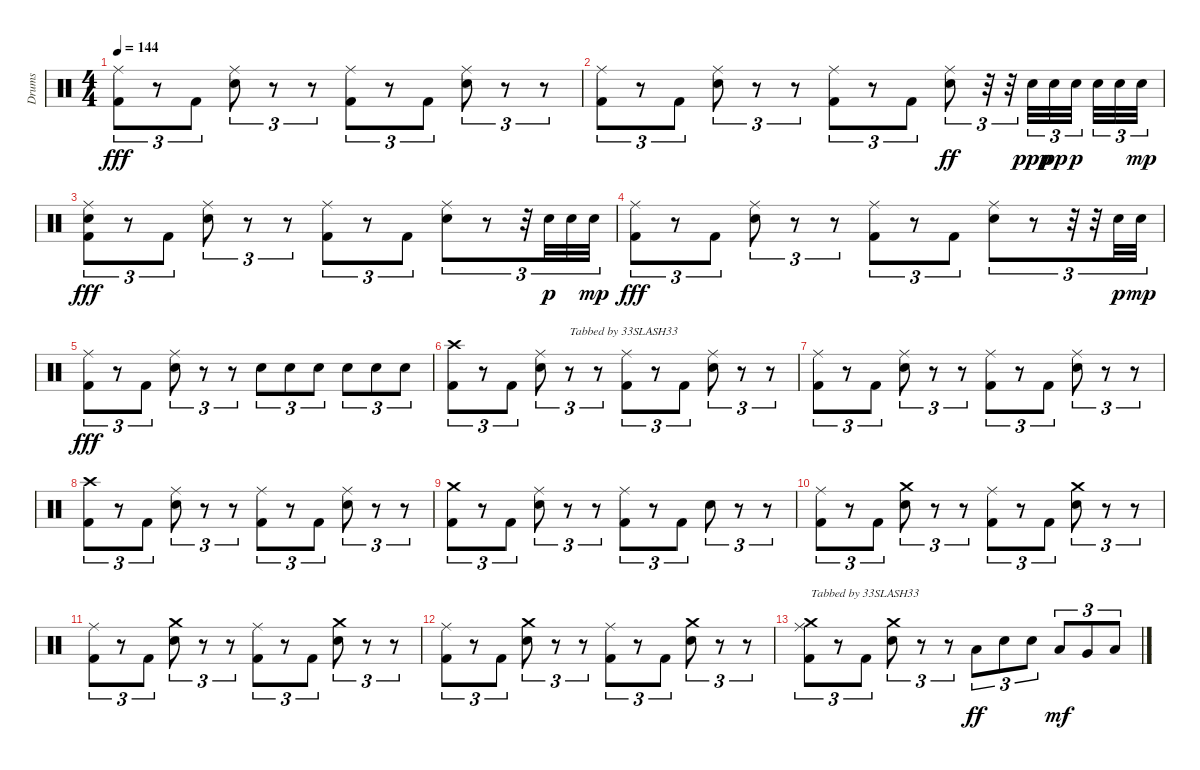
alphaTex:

\track ("Drums" "Drums") {instrument percussion}
\staff {score}
\articulation defaults
\ts (4 4)
\tempo 144
\clef neutral
\ks c
("Ride (middle)" "Kick (hit) 2").8{tu (3 2) dy fff} r.8{tu (3 2)} "Kick (hit) 2".8{tu (3 2)} ("Ride (middle)" "Snare (hit) 2").8{tu (3 2)} r.8{tu (3 2)} r.8{tu (3 2)} ("Ride (middle)" "Kick (hit) 2").8{tu (3 2)} r.8{tu (3 2)} "Kick (hit) 2".8{tu (3 2)} ("Ride (middle)" "Snare (hit) 2").8{tu (3 2)} r.8{tu (3 2)} r.8{tu (3 2)} |
("Ride (middle)" "Kick (hit) 2").8{tu (3 2)} r.8{tu (3 2)} "Kick (hit) 2".8{tu (3 2)} ("Ride (middle)" "Snare (hit) 2").8{tu (3 2)} r.8{tu (3 2)} r.8{tu (3 2)} ("Ride (middle)" "Kick (hit) 2").8{tu (3 2)} r.8{tu (3 2)} "Kick (hit) 2".8{tu (3 2)} ("Ride (middle)" "Snare (hit) 2").8{tu (3 2) dy ff} r.32{tu (3 2)} r.32{tu (3 2)} "Snare (hit) 2".32{tu (3 2) dy ppp} "Snare (hit) 2".32{tu (3 2) dy pp} "Snare (hit) 2".32{tu (3 2) dy p beam splitsecondary} "Snare (hit) 2".32{tu (3 2)} "Snare (hit) 2".32{tu (3 2)} "Snare (hit) 2".32{tu (3 2) dy mp} |
("Ride (middle)" "Snare (hit) 2" "Kick (hit) 2").8{tu (3 2) dy fff} r.8{tu (3 2)} "Kick (hit) 2".8{tu (3 2)} ("Ride (middle)" "Snare (hit) 2").8{tu (3 2)} r.8{tu (3 2)} r.8{tu (3 2)} ("Ride (middle)" "Kick (hit) 2").8{tu (3 2)} r.8{tu (3 2)} "Kick (hit) 2".8{tu (3 2)} ("Ride (middle)" "Snare (hit) 2").8{tu (3 2)} r.8{tu (3 2)} r.32{tu (3 2)} "Snare (hit) 2".32{tu (3 2) dy p} "Snare (hit) 2".32{tu (3 2)} "Snare (hit) 2".32{tu (3 2) dy mp} |
("Ride (middle)" "Kick (hit) 2").8{tu (3 2) dy fff} r.8{tu (3 2)} "Kick (hit) 2".8{tu (3 2)} ("Ride (middle)" "Snare (hit) 2").8{tu (3 2)} r.8{tu (3 2)} r.8{tu (3 2)} ("Ride (middle)" "Kick (hit) 2").8{tu (3 2)} r.8{tu (3 2)} "Kick (hit) 2".8{tu (3 2)} ("Ride (middle)" "Snare (hit) 2").8{tu (3 2)} r.8{tu (3 2)} r.32{tu (3 2)} r.32{tu (3 2)} "Snare (hit) 2".32{tu (3 2) dy p} "Snare (hit) 2".32{tu (3 2) dy mp} |
("Ride (middle)" "Kick (hit) 2").8{tu (3 2) dy fff} r.8{tu (3 2)} "Kick (hit) 2".8{tu (3 2)} ("Ride (middle)" "Snare (hit) 2").8{tu (3 2)} r.8{tu (3 2)} r.8{tu (3 2)} "Snare (hit) 2".8{tu (3 2)} "Snare (hit) 2".8{tu (3 2)} "Snare (hit) 2".8{tu (3 2)} "Snare (hit) 2".8{tu (3 2)} "Snare (hit) 2".8{tu (3 2)} "Snare (hit) 2".8{tu (3 2)} |
("Crash high (hit)" "Kick (hit) 2").8{tu (3 2)} r.8{tu (3 2)} "Kick (hit) 2".8{tu (3 2)} ("Ride (middle)" "Snare (hit) 2").8{tu (3 2)} r.8{tu (3 2) txt "Tabbed by 33SLASH33"} r.8{tu (3 2)} ("Ride (middle)" "Kick (hit) 2").8{tu (3 2)} r.8{tu (3 2)} "Kick (hit) 2".8{tu (3 2)} ("Ride (middle)" "Snare (hit) 2").8{tu (3 2)} r.8{tu (3 2)} r.8{tu (3 2)} |
("Ride (middle)" "Kick (hit) 2").8{tu (3 2)} r.8{tu (3 2)} "Kick (hit) 2".8{tu (3 2)} ("Ride (middle)" "Snare (hit) 2").8{tu (3 2)} r.8{tu (3 2)} r.8{tu (3 2)} ("Ride (middle)" "Kick (hit) 2").8{tu (3 2)} r.8{tu (3 2)} "Kick (hit) 2".8{tu (3 2)} ("Ride (middle)" "Snare (hit) 2").8{tu (3 2)} r.8{tu (3 2)} r.8{tu (3 2)} |
("Crash high (hit)" "Kick (hit) 2").8{tu (3 2)} r.8{tu (3 2)} "Kick (hit) 2".8{tu (3 2)} ("Ride (middle)" "Snare (hit) 2").8{tu (3 2)} r.8{tu (3 2)} r.8{tu (3 2)} ("Ride (middle)" "Kick (hit) 2").8{tu (3 2)} r.8{tu (3 2)} "Kick (hit) 2".8{tu (3 2)} ("Ride (middle)" "Snare (hit) 2").8{tu (3 2)} r.8{tu (3 2)} r.8{tu (3 2)} |
("Crash medium (hit)" "Kick (hit) 2").8{tu (3 2)} r.8{tu (3 2)} "Kick (hit) 2".8{tu (3 2)} ("Ride (middle)" "Snare (hit) 2").8{tu (3 2)} r.8{tu (3 2)} r.8{tu (3 2)} ("Ride (middle)" "Kick (hit) 2").8{tu (3 2)} r.8{tu (3 2)} "Kick (hit) 2".8{tu (3 2)} "Snare (hit) 2".8{tu (3 2)} r.8{tu (3 2)} r.8{tu (3 2)} |
("Ride (middle)" "Kick (hit) 2").8{tu (3 2)} r.8{tu (3 2)} "Kick (hit) 2".8{tu (3 2)} ("Crash medium (hit)" "Snare (hit) 2").8{tu (3 2)} r.8{tu (3 2)} r.8{tu (3 2)} ("Ride (middle)" "Kick (hit) 2").8{tu (3 2)} r.8{tu (3 2)} "Kick (hit) 2".8{tu (3 2)} ("Crash medium (hit)" "Snare (hit) 2").8{tu (3 2)} r.8{tu (3 2)} r.8{tu (3 2)} |
("Ride (middle)" "Kick (hit) 2").8{tu (3 2)} r.8{tu (3 2)} "Kick (hit) 2".8{tu (3 2)} ("Crash medium (hit)" "Snare (hit) 2").8{tu (3 2)} r.8{tu (3 2)} r.8{tu (3 2)} ("Ride (middle)" "Kick (hit) 2").8{tu (3 2)} r.8{tu (3 2)} "Kick (hit) 2".8{tu (3 2)} ("Crash medium (hit)" "Snare (hit) 2").8{tu (3 2)} r.8{tu (3 2)} r.8{tu (3 2)} |
("Ride (middle)" "Kick (hit) 2").8{tu (3 2)} r.8{tu (3 2)} "Kick (hit) 2".8{tu (3 2)} ("Crash medium (hit)" "Snare (hit) 2").8{tu (3 2)} r.8{tu (3 2)} r.8{tu (3 2)} ("Ride (middle)" "Kick (hit) 2").8{tu (3 2)} r.8{tu (3 2)} "Kick (hit) 2".8{tu (3 2)} ("Crash medium (hit)" "Snare (hit) 2").8{tu (3 2)} r.8{tu (3 2)} r.8{tu (3 2)} |
("Crash medium (hit)" "Ride (middle)" "Kick (hit) 2").8{tu (3 2) txt "Tabbed by 33SLASH33"} r.8{tu (3 2)} "Kick (hit) 2".8{tu (3 2)} ("Crash medium (hit)" "Snare (hit) 2").8{tu (3 2)} r.8{tu (3 2)} r.8{tu (3 2)} "Low Tom (hit)".8{tu (3 2) dy ff} "Snare (hit) 2".8{tu (3 2)} "Snare (hit) 2".8{tu (3 2)} "Low Tom (hit)".8{tu (3 2) dy mf} "Very Low Tom (hit)".8{tu (3 2)} "Low Floor Tom (hit)".8{tu (3 2)}
